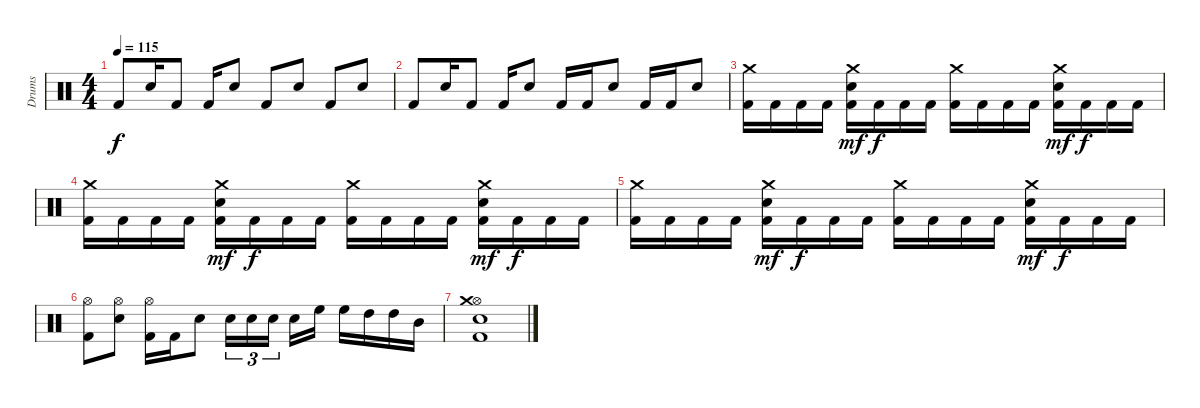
\track ("Drums" "Drums") {instrument percussion}
\staff {score}
\articulation defaults
\ts (4 4)
\tempo 115
\clef neutral
\ks c "Kick (hit) 2".8{dy f} "Electric Snare (hit)".16 "Kick (hit) 2".8 "Kick (hit) 2".16 "Electric Snare (hit)".8 "Kick (hit) 2".8 "Electric Snare (hit)".8 "Kick (hit) 2".8 "Electric Snare (hit)".8
|
"Kick (hit) 2".8 "Electric Snare (hit)".16 "Kick (hit) 2".8 "Kick (hit) 2".16 "Electric Snare (hit)".8 "Kick (hit) 2".16 "Kick (hit) 2".16 "Electric Snare (hit)".8 "Kick (hit) 2".16 "Kick (hit) 2".16 "Electric Snare (hit)".8 |
("Kick (hit) 2" "Crash medium (hit)").16 "Kick (hit) 2".16 "Kick (hit) 2".16 "Kick (hit) 2".16 ("Kick (hit) 2" "Electric Snare (hit)" "Crash medium (hit)").16{dy mf} "Kick (hit) 2".16{dy f} "Kick (hit) 2".16 "Kick (hit) 2".16 ("Kick (hit) 2" "Crash medium (hit)").16 "Kick (hit) 2".16 "Kick (hit) 2".16 "Kick (hit) 2".16 ("Kick (hit) 2" "Electric Snare (hit)" "Crash medium (hit)").16{dy mf} "Kick (hit) 2".16{dy f} "Kick (hit) 2".16 "Kick (hit) 2".16 |
("Kick (hit) 2" "Crash medium (hit)").16 "Kick (hit) 2".16 "Kick (hit) 2".16 "Kick (hit) 2".16 ("Kick (hit) 2" "Electric Snare (hit)" "Crash medium (hit)").16{dy mf} "Kick (hit) 2".16{dy f} "Kick (hit) 2".16 "Kick (hit) 2".16 ("Kick (hit) 2" "Crash medium (hit)").16 "Kick (hit) 2".16 "Kick (hit) 2".16 "Kick (hit) 2".16 ("Kick (hit) 2" "Electric Snare (hit)" "Crash medium (hit)").16{dy mf} "Kick (hit) 2".16{dy f} "Kick (hit) 2".16 "Kick (hit) 2".16 |
("Kick (hit) 2" "Crash medium (hit)").16 "Kick (hit) 2".16 "Kick (hit) 2".16 "Kick (hit) 2".16 ("Kick (hit) 2" "Electric Snare (hit)" "Crash medium (hit)").16{dy mf} "Kick (hit) 2".16{dy f} "Kick (hit) 2".16 "Kick (hit) 2".16 ("Kick (hit) 2" "Crash medium (hit)").16 "Kick (hit) 2".16 "Kick (hit) 2".16 "Kick (hit) 2".16 ("Kick (hit) 2" "Electric Snare (hit)" "Crash medium (hit)").16{dy mf} "Kick (hit) 2".16{dy f} "Kick (hit) 2".16 "Kick (hit) 2".16 |
("Kick (hit) 2" "Hi-Hat (open)").8 ("Electric Snare (hit)" "Hi-Hat (open)").8 ("Kick (hit) 2" "Hi-Hat (open)").16 "Kick (hit) 2".16 "Electric Snare (hit)".8 "Electric Snare (hit)".16{tu (3 2)} "Electric Snare (hit)".16{tu (3 2)} "Electric Snare (hit)".16{tu (3 2)} "Electric Snare (hit)".16 "High Floor Tom (hit)".16 "High Floor Tom (hit)".16 "High Tom (hit)".16 "High Tom (hit)".16 "Mid Tom (hit)".16 |
("Kick (hit) 2" "Electric Snare (hit)" "Hi-Hat (open)" "Crash medium (hit)").1
